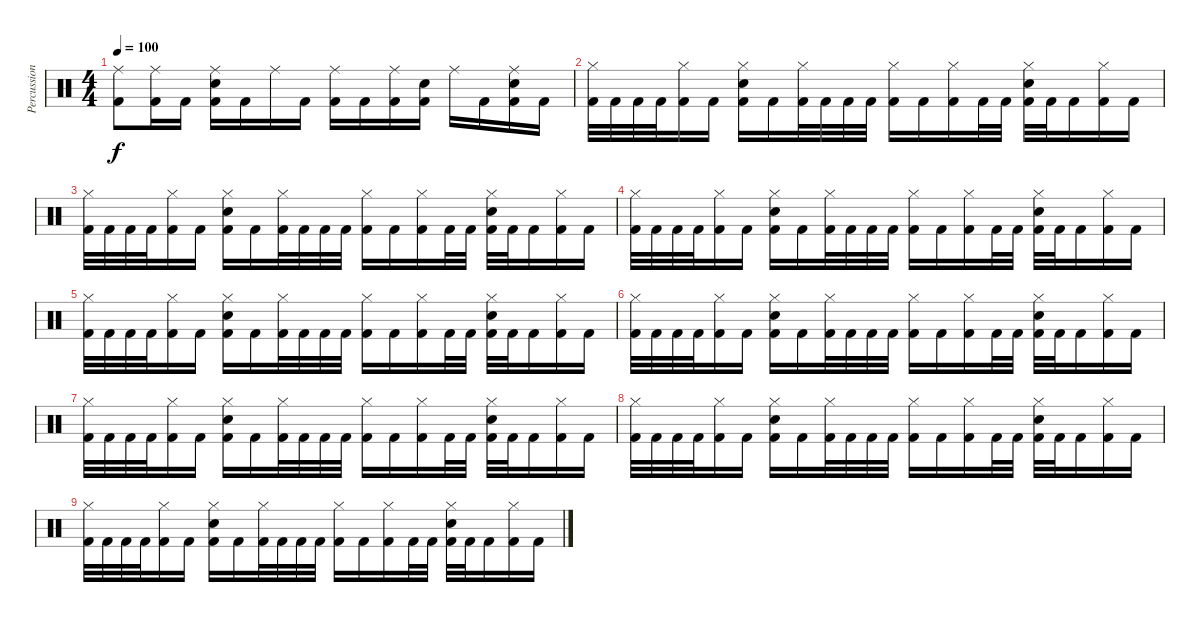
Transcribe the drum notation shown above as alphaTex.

\track ("Percussions" "Percussion") {instrument percussion}
\staff {score}
\articulation defaults
\ts (4 4)
\tempo 100
\clef neutral
\ks c
("Ride (middle)" "Kick (hit) 2").8{dy f} ("Ride (middle)" "Kick (hit) 2").16 "Kick (hit) 2".16 ("Ride (middle)" "Electric Snare (hit)" "Kick (hit) 2").16 "Kick (hit) 2".16 "Ride (middle)".16 "Kick (hit) 2".16 ("Ride (middle)" "Kick (hit) 2").16 "Kick (hit) 2".16 ("Ride (middle)" "Kick (hit) 2").16 ("Electric Snare (hit)" "Kick (hit) 2").16 "Ride (middle)".16 "Kick (hit) 2".16 ("Ride (middle)" "Electric Snare (hit)" "Kick (hit) 2").16 "Kick (hit) 2".16 |
("Hi-Hat (closed)" "Kick (hit) 2").32 "Kick (hit) 2".32 "Kick (hit) 2".32 "Kick (hit) 2".32 ("Hi-Hat (closed)" "Kick (hit) 2").16 "Kick (hit) 2".16 ("Hi-Hat (closed)" "Electric Snare (hit)" "Kick (hit) 2").16 "Kick (hit) 2".16 ("Hi-Hat (closed)" "Kick (hit) 2").32 "Kick (hit) 2".32 "Kick (hit) 2".32 "Kick (hit) 2".32 ("Hi-Hat (closed)" "Kick (hit) 2").16 "Kick (hit) 2".16 ("Hi-Hat (closed)" "Kick (hit) 2").16 "Kick (hit) 2".32 "Kick (hit) 2".32 ("Hi-Hat (closed)" "Electric Snare (hit)" "Kick (hit) 2").32 "Kick (hit) 2".32 "Kick (hit) 2".16 ("Hi-Hat (closed)" "Kick (hit) 2").16 "Kick (hit) 2".16 |
("Hi-Hat (closed)" "Kick (hit) 2").32 "Kick (hit) 2".32 "Kick (hit) 2".32 "Kick (hit) 2".32 ("Hi-Hat (closed)" "Kick (hit) 2").16 "Kick (hit) 2".16 ("Hi-Hat (closed)" "Electric Snare (hit)" "Kick (hit) 2").16 "Kick (hit) 2".16 ("Hi-Hat (closed)" "Kick (hit) 2").32 "Kick (hit) 2".32 "Kick (hit) 2".32 "Kick (hit) 2".32 ("Hi-Hat (closed)" "Kick (hit) 2").16 "Kick (hit) 2".16 ("Hi-Hat (closed)" "Kick (hit) 2").16 "Kick (hit) 2".32 "Kick (hit) 2".32 ("Hi-Hat (closed)" "Electric Snare (hit)" "Kick (hit) 2").32 "Kick (hit) 2".32 "Kick (hit) 2".16 ("Hi-Hat (closed)" "Kick (hit) 2").16 "Kick (hit) 2".16 |
("Hi-Hat (closed)" "Kick (hit) 2").32 "Kick (hit) 2".32 "Kick (hit) 2".32 "Kick (hit) 2".32 ("Hi-Hat (closed)" "Kick (hit) 2").16 "Kick (hit) 2".16 ("Hi-Hat (closed)" "Electric Snare (hit)" "Kick (hit) 2").16 "Kick (hit) 2".16 ("Hi-Hat (closed)" "Kick (hit) 2").32 "Kick (hit) 2".32 "Kick (hit) 2".32 "Kick (hit) 2".32 ("Hi-Hat (closed)" "Kick (hit) 2").16 "Kick (hit) 2".16 ("Hi-Hat (closed)" "Kick (hit) 2").16 "Kick (hit) 2".32 "Kick (hit) 2".32 ("Hi-Hat (closed)" "Electric Snare (hit)" "Kick (hit) 2").32 "Kick (hit) 2".32 "Kick (hit) 2".16 ("Hi-Hat (closed)" "Kick (hit) 2").16 "Kick (hit) 2".16 |
("Hi-Hat (closed)" "Kick (hit) 2").32 "Kick (hit) 2".32 "Kick (hit) 2".32 "Kick (hit) 2".32 ("Hi-Hat (closed)" "Kick (hit) 2").16 "Kick (hit) 2".16 ("Hi-Hat (closed)" "Electric Snare (hit)" "Kick (hit) 2").16 "Kick (hit) 2".16 ("Hi-Hat (closed)" "Kick (hit) 2").32 "Kick (hit) 2".32 "Kick (hit) 2".32 "Kick (hit) 2".32 ("Hi-Hat (closed)" "Kick (hit) 2").16 "Kick (hit) 2".16 ("Hi-Hat (closed)" "Kick (hit) 2").16 "Kick (hit) 2".32 "Kick (hit) 2".32 ("Hi-Hat (closed)" "Electric Snare (hit)" "Kick (hit) 2").32 "Kick (hit) 2".32 "Kick (hit) 2".16 ("Hi-Hat (closed)" "Kick (hit) 2").16 "Kick (hit) 2".16 |
("Hi-Hat (closed)" "Kick (hit) 2").32 "Kick (hit) 2".32 "Kick (hit) 2".32 "Kick (hit) 2".32 ("Hi-Hat (closed)" "Kick (hit) 2").16 "Kick (hit) 2".16 ("Hi-Hat (closed)" "Electric Snare (hit)" "Kick (hit) 2").16 "Kick (hit) 2".16 ("Hi-Hat (closed)" "Kick (hit) 2").32 "Kick (hit) 2".32 "Kick (hit) 2".32 "Kick (hit) 2".32 ("Hi-Hat (closed)" "Kick (hit) 2").16 "Kick (hit) 2".16 ("Hi-Hat (closed)" "Kick (hit) 2").16 "Kick (hit) 2".32 "Kick (hit) 2".32 ("Hi-Hat (closed)" "Electric Snare (hit)" "Kick (hit) 2").32 "Kick (hit) 2".32 "Kick (hit) 2".16 ("Hi-Hat (closed)" "Kick (hit) 2").16 "Kick (hit) 2".16 |
("Hi-Hat (closed)" "Kick (hit) 2").32 "Kick (hit) 2".32 "Kick (hit) 2".32 "Kick (hit) 2".32 ("Hi-Hat (closed)" "Kick (hit) 2").16 "Kick (hit) 2".16 ("Hi-Hat (closed)" "Electric Snare (hit)" "Kick (hit) 2").16 "Kick (hit) 2".16 ("Hi-Hat (closed)" "Kick (hit) 2").32 "Kick (hit) 2".32 "Kick (hit) 2".32 "Kick (hit) 2".32 ("Hi-Hat (closed)" "Kick (hit) 2").16 "Kick (hit) 2".16 ("Hi-Hat (closed)" "Kick (hit) 2").16 "Kick (hit) 2".32 "Kick (hit) 2".32 ("Hi-Hat (closed)" "Electric Snare (hit)" "Kick (hit) 2").32 "Kick (hit) 2".32 "Kick (hit) 2".16 ("Hi-Hat (closed)" "Kick (hit) 2").16 "Kick (hit) 2".16 |
("Hi-Hat (closed)" "Kick (hit) 2").32 "Kick (hit) 2".32 "Kick (hit) 2".32 "Kick (hit) 2".32 ("Hi-Hat (closed)" "Kick (hit) 2").16 "Kick (hit) 2".16 ("Hi-Hat (closed)" "Electric Snare (hit)" "Kick (hit) 2").16 "Kick (hit) 2".16 ("Hi-Hat (closed)" "Kick (hit) 2").32 "Kick (hit) 2".32 "Kick (hit) 2".32 "Kick (hit) 2".32 ("Hi-Hat (closed)" "Kick (hit) 2").16 "Kick (hit) 2".16 ("Hi-Hat (closed)" "Kick (hit) 2").16 "Kick (hit) 2".32 "Kick (hit) 2".32 ("Hi-Hat (closed)" "Electric Snare (hit)" "Kick (hit) 2").32 "Kick (hit) 2".32 "Kick (hit) 2".16 ("Hi-Hat (closed)" "Kick (hit) 2").16 "Kick (hit) 2".16 |
("Hi-Hat (closed)" "Kick (hit) 2").32 "Kick (hit) 2".32 "Kick (hit) 2".32 "Kick (hit) 2".32 ("Hi-Hat (closed)" "Kick (hit) 2").16 "Kick (hit) 2".16 ("Hi-Hat (closed)" "Electric Snare (hit)" "Kick (hit) 2").16 "Kick (hit) 2".16 ("Hi-Hat (closed)" "Kick (hit) 2").32 "Kick (hit) 2".32 "Kick (hit) 2".32 "Kick (hit) 2".32 ("Hi-Hat (closed)" "Kick (hit) 2").16 "Kick (hit) 2".16 ("Hi-Hat (closed)" "Kick (hit) 2").16 "Kick (hit) 2".32 "Kick (hit) 2".32 ("Hi-Hat (closed)" "Electric Snare (hit)" "Kick (hit) 2").32 "Kick (hit) 2".32 "Kick (hit) 2".16 ("Hi-Hat (closed)" "Kick (hit) 2").16 "Kick (hit) 2".16
